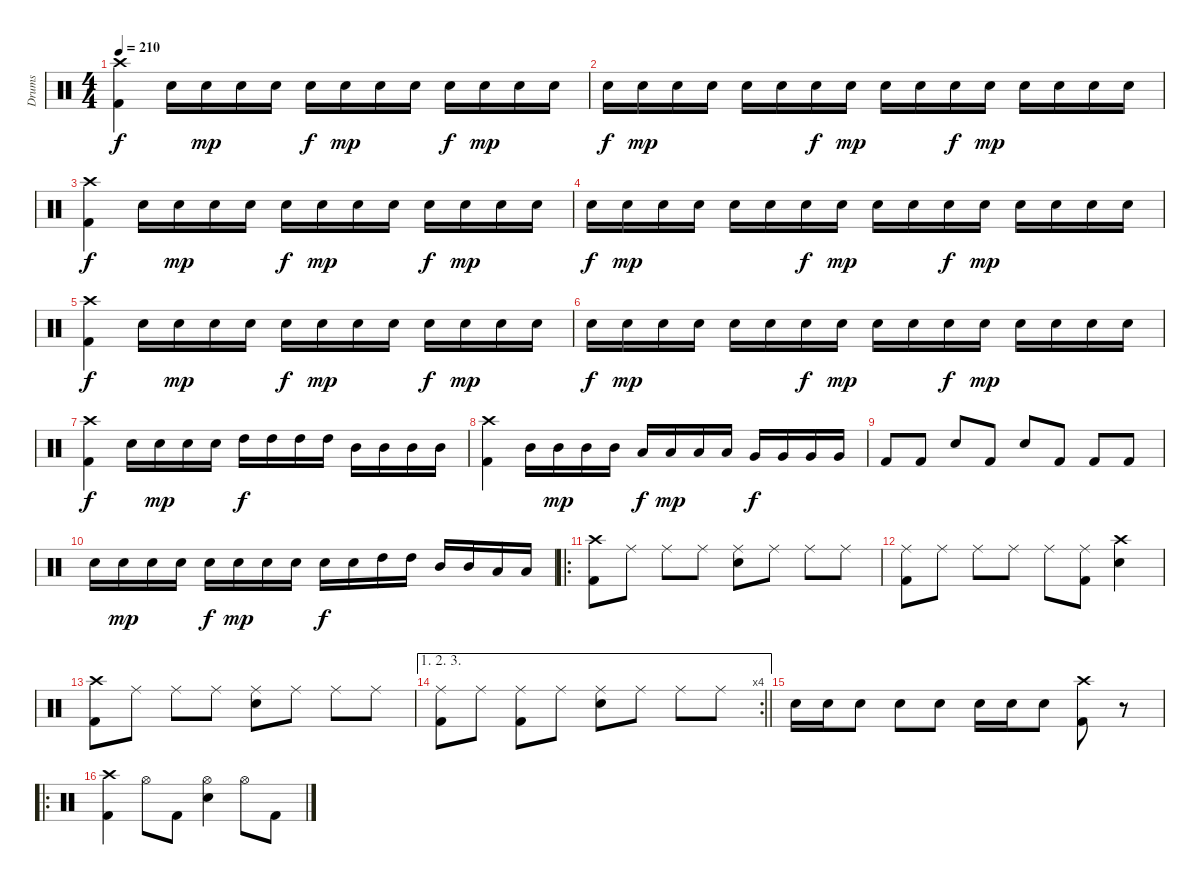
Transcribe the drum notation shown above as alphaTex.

\track ("Drums" "Drums") {instrument percussion}
\staff {score}
\articulation defaults
\ts (4 4)
\tempo 210
\clef neutral
\ks c
("Kick (hit) 2" "Crash high (hit)").4{dy f} "Electric Snare (hit)".16 "Electric Snare (hit)".16{dy mp} "Electric Snare (hit)".16 "Electric Snare (hit)".16 "Electric Snare (hit)".16{dy f} "Electric Snare (hit)".16{dy mp} "Electric Snare (hit)".16 "Electric Snare (hit)".16 "Electric Snare (hit)".16{dy f} "Electric Snare (hit)".16{dy mp} "Electric Snare (hit)".16 "Electric Snare (hit)".16 |
"Electric Snare (hit)".16{dy f} "Electric Snare (hit)".16{dy mp} "Electric Snare (hit)".16 "Electric Snare (hit)".16 "Electric Snare (hit)".16 "Electric Snare (hit)".16 "Electric Snare (hit)".16{dy f} "Electric Snare (hit)".16{dy mp} "Electric Snare (hit)".16 "Electric Snare (hit)".16 "Electric Snare (hit)".16{dy f} "Electric Snare (hit)".16{dy mp} "Electric Snare (hit)".16 "Electric Snare (hit)".16 "Electric Snare (hit)".16 "Electric Snare (hit)".16 |
("Kick (hit) 2" "Crash high (hit)").4{dy f} "Electric Snare (hit)".16 "Electric Snare (hit)".16{dy mp} "Electric Snare (hit)".16 "Electric Snare (hit)".16 "Electric Snare (hit)".16{dy f} "Electric Snare (hit)".16{dy mp} "Electric Snare (hit)".16 "Electric Snare (hit)".16 "Electric Snare (hit)".16{dy f} "Electric Snare (hit)".16{dy mp} "Electric Snare (hit)".16 "Electric Snare (hit)".16 |
"Electric Snare (hit)".16{dy f} "Electric Snare (hit)".16{dy mp} "Electric Snare (hit)".16 "Electric Snare (hit)".16 "Electric Snare (hit)".16 "Electric Snare (hit)".16 "Electric Snare (hit)".16{dy f} "Electric Snare (hit)".16{dy mp} "Electric Snare (hit)".16 "Electric Snare (hit)".16 "Electric Snare (hit)".16{dy f} "Electric Snare (hit)".16{dy mp} "Electric Snare (hit)".16 "Electric Snare (hit)".16 "Electric Snare (hit)".16 "Electric Snare (hit)".16 |
("Kick (hit) 2" "Crash high (hit)").4{dy f} "Electric Snare (hit)".16 "Electric Snare (hit)".16{dy mp} "Electric Snare (hit)".16 "Electric Snare (hit)".16 "Electric Snare (hit)".16{dy f} "Electric Snare (hit)".16{dy mp} "Electric Snare (hit)".16 "Electric Snare (hit)".16 "Electric Snare (hit)".16{dy f} "Electric Snare (hit)".16{dy mp} "Electric Snare (hit)".16 "Electric Snare (hit)".16 |
"Electric Snare (hit)".16{dy f} "Electric Snare (hit)".16{dy mp} "Electric Snare (hit)".16 "Electric Snare (hit)".16 "Electric Snare (hit)".16 "Electric Snare (hit)".16 "Electric Snare (hit)".16{dy f} "Electric Snare (hit)".16{dy mp} "Electric Snare (hit)".16 "Electric Snare (hit)".16 "Electric Snare (hit)".16{dy f} "Electric Snare (hit)".16{dy mp} "Electric Snare (hit)".16 "Electric Snare (hit)".16 "Electric Snare (hit)".16 "Electric Snare (hit)".16 |
("Kick (hit) 2" "Crash high (hit)").4{dy f} "Electric Snare (hit)".16 "Electric Snare (hit)".16{dy mp} "Electric Snare (hit)".16 "Electric Snare (hit)".16 "High Tom (hit)".16{dy f} "High Tom (hit)".16 "High Tom (hit)".16 "High Tom (hit)".16 "Mid Tom (hit)".16 "Mid Tom (hit)".16 "Mid Tom (hit)".16 "Mid Tom (hit)".16 |
("Kick (hit) 2" "Crash high (hit)").4 "Mid Tom (hit)".16 "Mid Tom (hit)".16{dy mp} "Mid Tom (hit)".16 "Mid Tom (hit)".16 "Low Tom (hit)".16{dy f} "Low Tom (hit)".16{dy mp} "Low Tom (hit)".16 "Low Tom (hit)".16 "Very Low Tom (hit)".16{dy f} "Very Low Tom (hit)".16 "Very Low Tom (hit)".16 "Very Low Tom (hit)".16 |
"Kick (hit) 2".8 "Kick (hit) 2".8 "Electric Snare (hit)".8 "Kick (hit) 2".8 "Electric Snare (hit)".8 "Kick (hit) 2".8 "Kick (hit) 2".8 "Kick (hit) 2".8 |
"Electric Snare (hit)".16 "Electric Snare (hit)".16{dy mp} "Electric Snare (hit)".16 "Electric Snare (hit)".16 "Electric Snare (hit)".16{dy f} "Electric Snare (hit)".16{dy mp} "Electric Snare (hit)".16 "Electric Snare (hit)".16 "Electric Snare (hit)".16{dy f} "Electric Snare (hit)".16 "High Tom (hit)".16 "High Tom (hit)".16 "Mid Tom (hit)".16 "Mid Tom (hit)".16 "Low Tom (hit)".16 "Low Tom (hit)".16 |
\ro
("Kick (hit) 2" "Crash high (hit)").8 "Ride (middle)".8 "Ride (middle)".8 "Ride (middle)".8 ("Electric Snare (hit)" "Ride (middle)").8 "Ride (middle)".8 "Ride (middle)".8 "Ride (middle)".8 |
("Kick (hit) 2" "Ride (middle)").8 "Ride (middle)".8 "Ride (middle)".8 "Ride (middle)".8 "Ride (middle)".8 ("Kick (hit) 2" "Ride (middle)").8 ("Electric Snare (hit)" "Crash high (hit)").4 |
("Kick (hit) 2" "Crash high (hit)").8 "Ride (middle)".8 "Ride (middle)".8 "Ride (middle)".8 ("Electric Snare (hit)" "Ride (middle)").8 "Ride (middle)".8 "Ride (middle)".8 "Ride (middle)".8 |
\ae (1 2 3)
\rc 4
\barLineRight lightlight
("Kick (hit) 2" "Ride (middle)").8 "Ride (middle)".8 ("Kick (hit) 2" "Ride (middle)").8 "Ride (middle)".8 ("Electric Snare (hit)" "Ride (middle)").8 "Ride (middle)".8 "Ride (middle)".8 "Ride (middle)".8 |
"Electric Snare (hit)".16 "Electric Snare (hit)".16 "Electric Snare (hit)".8 "Electric Snare (hit)".8 "Electric Snare (hit)".8 "Electric Snare (hit)".16 "Electric Snare (hit)".16 "Electric Snare (hit)".8 ("Crash high (hit)" "Kick (hit) 2").8 r.8 |
\ro
("Crash high (hit)" "Kick (hit) 2").4 "Hi-Hat (open)".8 "Kick (hit) 2".8 ("Hi-Hat (open)" "Electric Snare (hit)").4 "Hi-Hat (open)".8 "Kick (hit) 2".8
